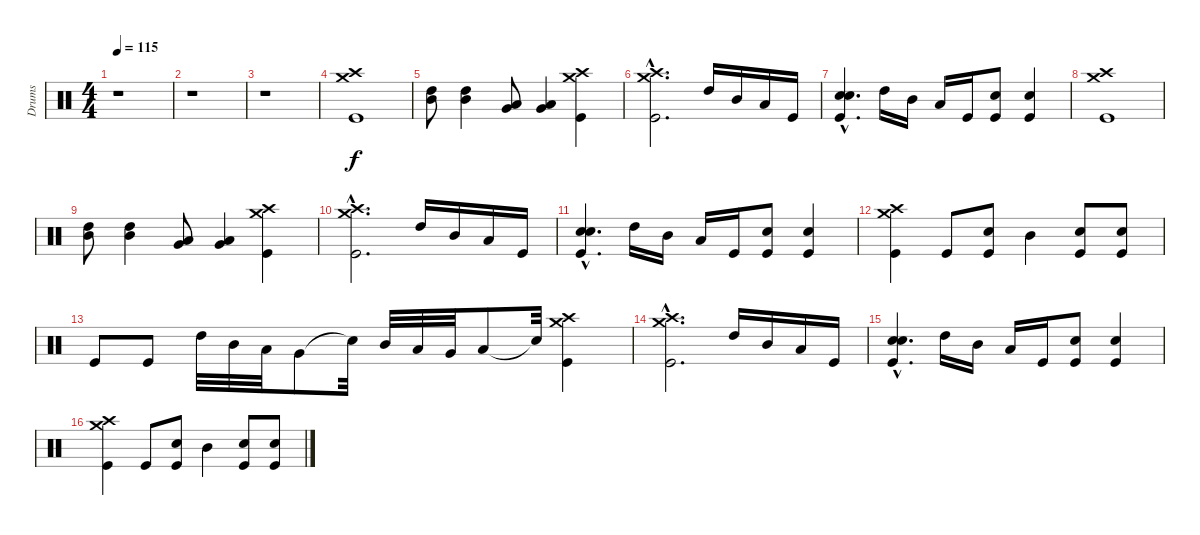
\track ("Drums" "Drums") {instrument percussion}
\staff {score}
\articulation defaults
\ts (4 4)
\tempo 115
\clef neutral
\ks c
r.1{dy f} |
r.1 |
r.1 |
("Kick (hit)" "Crash medium (hit)" "Crash high (hit)").1 |
("Mid Tom (hit)" "High Tom (hit)").8 ("Mid Tom (hit)" "High Tom (hit)").4 ("Low Floor Tom (hit)" "Very Low Tom (hit)").8 ("Low Floor Tom (hit)" "Very Low Tom (hit)").4 ("Kick (hit)" "Crash medium (hit)" "Crash high (hit)").4 |
("Kick (hit)"{hac} "Crash medium (hit)"{hac} "Crash high (hit)"{hac}).2{d} "High Tom (hit)".16 "Mid Tom (hit)".16 "Low Tom (hit)".16 "Kick (hit)".16 |
("Kick (hit)"{hac} "Electric Snare (hit)"{hac} "Electric Snare (hit)"{hac}).4{d} "High Tom (hit)".16 "Mid Tom (hit)".16 "Low Tom (hit)".16 "Kick (hit)".16 ("Kick (hit)" "Electric Snare (hit)").8 ("Kick (hit)" "Electric Snare (hit)").4 |
("Kick (hit)" "Crash medium (hit)" "Crash high (hit)").1 |
("Mid Tom (hit)" "High Tom (hit)").8 ("Mid Tom (hit)" "High Tom (hit)").4 ("Low Floor Tom (hit)" "Very Low Tom (hit)").8 ("Low Floor Tom (hit)" "Very Low Tom (hit)").4 ("Kick (hit)" "Crash medium (hit)" "Crash high (hit)").4 |
("Kick (hit)"{hac} "Crash medium (hit)"{hac} "Crash high (hit)"{hac}).2{d} "High Tom (hit)".16 "Mid Tom (hit)".16 "Low Tom (hit)".16 "Kick (hit)".16 |
("Kick (hit)"{hac} "Electric Snare (hit)"{hac} "Electric Snare (hit)"{hac}).4{d} "High Tom (hit)".16 "Mid Tom (hit)".16 "Low Tom (hit)".16 "Kick (hit)".16 ("Kick (hit)" "Electric Snare (hit)").8 ("Kick (hit)" "Electric Snare (hit)").4 |
("Kick (hit)" "Crash medium (hit)" "Crash high (hit)").4 "Kick (hit)".8 ("Electric Snare (hit)" "Kick (hit)").8 "Mid Tom (hit)".4 ("Electric Snare (hit)" "Kick (hit)").8 ("Electric Snare (hit)" "Kick (hit)").8 |
"Kick (hit)".8 "Kick (hit)".8 "High Tom (hit)".32 "Mid Tom (hit)".32 "Low Tom (hit)".32 "Very Low Tom (hit)".8 "Snare (hit)"{t}.32 "Mid Tom (hit)".32 "Low Tom (hit)".32 "Very Low Tom (hit)".32 "Low Floor Tom (hit)".8 "Snare (hit)"{t}.32 ("Kick (hit)" "Crash high (hit)" "Crash medium (hit)").4 |
("Kick (hit)"{hac} "Crash medium (hit)"{hac} "Crash high (hit)"{hac}).2{d} "High Tom (hit)".16 "Mid Tom (hit)".16 "Low Tom (hit)".16 "Kick (hit)".16 |
("Kick (hit)"{hac} "Electric Snare (hit)"{hac} "Electric Snare (hit)"{hac}).4{d} "High Tom (hit)".16 "Mid Tom (hit)".16 "Low Tom (hit)".16 "Kick (hit)".16 ("Kick (hit)" "Electric Snare (hit)").8 ("Kick (hit)" "Electric Snare (hit)").4 |
("Kick (hit)" "Crash medium (hit)" "Crash high (hit)").4 "Kick (hit)".8 ("Electric Snare (hit)" "Kick (hit)").8 "Mid Tom (hit)".4 ("Electric Snare (hit)" "Kick (hit)").8 ("Electric Snare (hit)" "Kick (hit)").8
